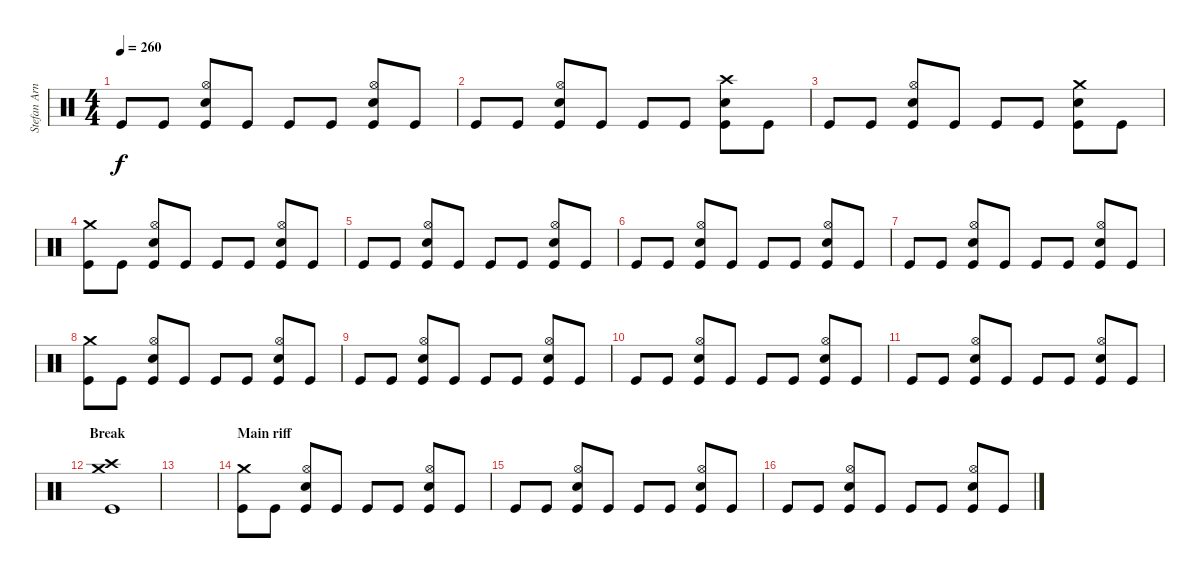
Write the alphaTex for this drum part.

\track ("Stefan Arnold" "Stefan Arn") {instrument percussion}
\staff {score}
\articulation defaults
\ts (4 4)
\tempo 260
\clef neutral
\ks c "Kick (hit)".8{dy f} "Kick (hit)".8
("Hi-Hat (open)" "Electric Snare (hit)" "Kick (hit)").8 "Kick (hit)".8 "Kick (hit)".8 "Kick (hit)".8 ("Hi-Hat (open)" "Electric Snare (hit)" "Kick (hit)").8 "Kick (hit)".8 |
"Kick (hit)".8 "Kick (hit)".8 ("Hi-Hat (open)" "Electric Snare (hit)" "Kick (hit)").8 "Kick (hit)".8 "Kick (hit)".8 "Kick (hit)".8 ("Crash high (hit)" "Electric Snare (hit)" "Kick (hit)").8 "Kick (hit)".8 |
"Kick (hit)".8 "Kick (hit)".8 ("Hi-Hat (open)" "Electric Snare (hit)" "Kick (hit)").8 "Kick (hit)".8 "Kick (hit)".8 "Kick (hit)".8 ("Crash medium (hit)" "Electric Snare (hit)" "Kick (hit)").8 "Kick (hit)".8 |
("Crash medium (hit)" "Kick (hit)").8 "Kick (hit)".8 ("Hi-Hat (open)" "Electric Snare (hit)" "Kick (hit)").8 "Kick (hit)".8 "Kick (hit)".8 "Kick (hit)".8 ("Hi-Hat (open)" "Electric Snare (hit)" "Kick (hit)").8 "Kick (hit)".8 |
"Kick (hit)".8 "Kick (hit)".8 ("Hi-Hat (open)" "Electric Snare (hit)" "Kick (hit)").8 "Kick (hit)".8 "Kick (hit)".8 "Kick (hit)".8 ("Hi-Hat (open)" "Electric Snare (hit)" "Kick (hit)").8 "Kick (hit)".8 |
"Kick (hit)".8 "Kick (hit)".8 ("Hi-Hat (open)" "Electric Snare (hit)" "Kick (hit)").8 "Kick (hit)".8 "Kick (hit)".8 "Kick (hit)".8 ("Hi-Hat (open)" "Electric Snare (hit)" "Kick (hit)").8 "Kick (hit)".8 |
"Kick (hit)".8 "Kick (hit)".8 ("Hi-Hat (open)" "Electric Snare (hit)" "Kick (hit)").8 "Kick (hit)".8 "Kick (hit)".8 "Kick (hit)".8 ("Hi-Hat (open)" "Electric Snare (hit)" "Kick (hit)").8 "Kick (hit)".8 |
("Crash medium (hit)" "Kick (hit)").8 "Kick (hit)".8 ("Hi-Hat (open)" "Electric Snare (hit)" "Kick (hit)").8 "Kick (hit)".8 "Kick (hit)".8 "Kick (hit)".8 ("Hi-Hat (open)" "Electric Snare (hit)" "Kick (hit)").8 "Kick (hit)".8 |
"Kick (hit)".8 "Kick (hit)".8 ("Hi-Hat (open)" "Electric Snare (hit)" "Kick (hit)").8 "Kick (hit)".8 "Kick (hit)".8 "Kick (hit)".8 ("Hi-Hat (open)" "Electric Snare (hit)" "Kick (hit)").8 "Kick (hit)".8 |
"Kick (hit)".8 "Kick (hit)".8 ("Hi-Hat (open)" "Electric Snare (hit)" "Kick (hit)").8 "Kick (hit)".8 "Kick (hit)".8 "Kick (hit)".8 ("Hi-Hat (open)" "Electric Snare (hit)" "Kick (hit)").8 "Kick (hit)".8 |
"Kick (hit)".8 "Kick (hit)".8 ("Hi-Hat (open)" "Electric Snare (hit)" "Kick (hit)").8 "Kick (hit)".8 "Kick (hit)".8 "Kick (hit)".8 ("Hi-Hat (open)" "Electric Snare (hit)" "Kick (hit)").8 "Kick (hit)".8 |
\section ("" "Break")
("Kick (hit)" "Crash medium (hit)" "Crash high (hit)").1 |
|
\section ("" "Main riff")
("Crash medium (hit)" "Kick (hit)").8 "Kick (hit)".8 ("Hi-Hat (open)" "Electric Snare (hit)" "Kick (hit)").8 "Kick (hit)".8 "Kick (hit)".8 "Kick (hit)".8 ("Hi-Hat (open)" "Electric Snare (hit)" "Kick (hit)").8 "Kick (hit)".8 |
"Kick (hit)".8 "Kick (hit)".8 ("Hi-Hat (open)" "Electric Snare (hit)" "Kick (hit)").8 "Kick (hit)".8 "Kick (hit)".8 "Kick (hit)".8 ("Hi-Hat (open)" "Electric Snare (hit)" "Kick (hit)").8 "Kick (hit)".8 |
"Kick (hit)".8 "Kick (hit)".8 ("Hi-Hat (open)" "Electric Snare (hit)" "Kick (hit)").8 "Kick (hit)".8 "Kick (hit)".8 "Kick (hit)".8 ("Hi-Hat (open)" "Electric Snare (hit)" "Kick (hit)").8 "Kick (hit)".8
